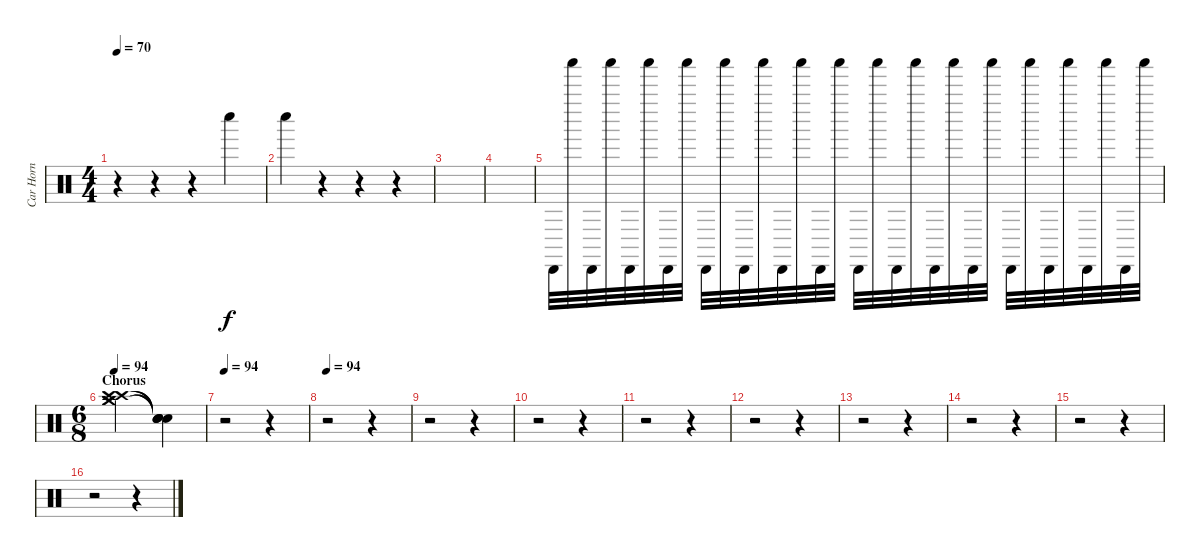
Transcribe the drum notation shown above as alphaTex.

\track ("Car Horn" "Car Horn") {instrument percussion}
\staff {score}
\articulation defaults
\ts (4 4)
\tempo 70
\clef neutral
\ks c
r.4{dy f} r.4 r.4 "Whistle low (hit)".4 |
"Whistle low (hit)".4 r.4 r.4 r.4 |
|
|
"Cabasa (hit)".32{volume 1} "Shaker (hit)".32 "Cabasa (hit)".32 "Shaker (hit)".32{volume 3} "Cabasa (hit)".32 "Shaker (hit)".32 "Cabasa (hit)".32 "Shaker (hit)".32 "Cabasa (hit)".32{volume 7} "Shaker (hit)".32 "Cabasa (hit)".32 "Shaker (hit)".32 "Cabasa (hit)".32 "Shaker (hit)".32 "Cabasa (hit)".32{volume 10} "Shaker (hit)".32 "Cabasa (hit)".32 "Shaker (hit)".32 "Cabasa (hit)".32 "Shaker (hit)".32 "Cabasa (hit)".32{volume 11} "Shaker (hit)".32 "Cabasa (hit)".32 "Shaker (hit)".32 "Cabasa (hit)".32 "Shaker (hit)".32 "Cabasa (hit)".32 "Shaker (hit)".32 "Cabasa (hit)".32 "Shaker (hit)".32 "Cabasa (hit)".32 "Shaker (hit)".32 |
\ts (6 8)
\section ("" "Chorus")
\tempo 94
("Crash medium (hit)" "Crash high (hit)" "Crash medium (hit)" "Crash high (hit)").2{volume 13} ("Snare (hit)"{t} "Snare (hit)"{t} "Snare (hit)"{t} "Snare (hit)"{t}).4 |
\tempo 94
r.2 r.4 |
\tempo 94
r.2 r.4 |
r.2 r.4 |
r.2 r.4 |
r.2 r.4 |
r.2 r.4 |
r.2 r.4 |
r.2 r.4 |
r.2 r.4 |
r.2 r.4
